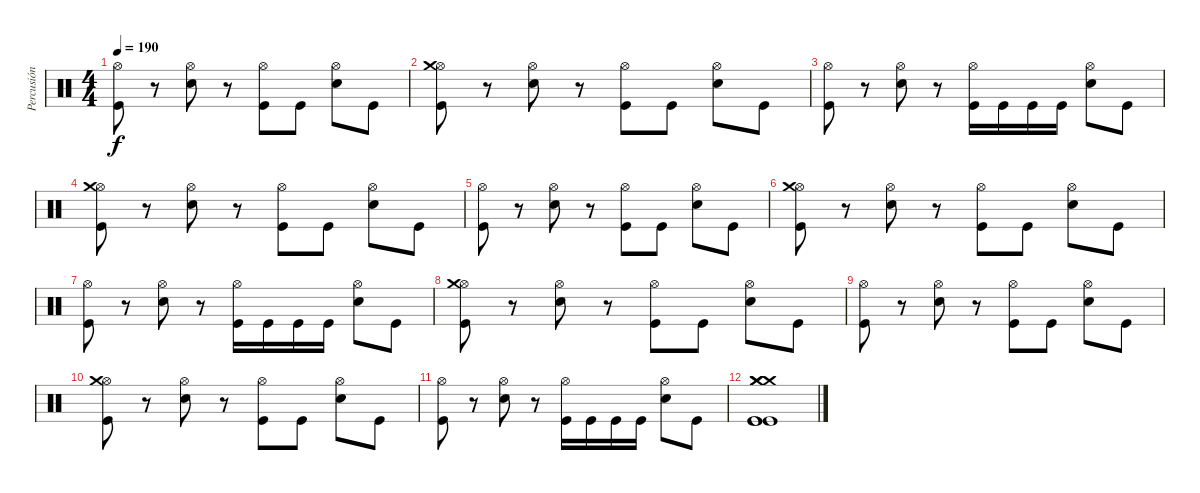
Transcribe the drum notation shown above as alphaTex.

\track ("Percusión" "Percusión") {instrument percussion}
\staff {score}
\articulation defaults
\ts (4 4)
\tempo 190
\clef neutral
\ks c
("Hi-Hat (open)" "Kick (hit)").8{dy f} r.8 ("Hi-Hat (open)" "Snare (hit) 2").8 r.8 ("Hi-Hat (open)" "Kick (hit)").8 "Kick (hit)".8 ("Hi-Hat (open)" "Snare (hit) 2").8 "Kick (hit)".8 |
("Hi-Hat (open)" "Crash medium (hit)" "Kick (hit)").8 r.8 ("Hi-Hat (open)" "Snare (hit) 2").8 r.8 ("Hi-Hat (open)" "Kick (hit)").8 "Kick (hit)".8 ("Hi-Hat (open)" "Snare (hit) 2").8 "Kick (hit)".8 |
("Hi-Hat (open)" "Kick (hit)").8 r.8 ("Hi-Hat (open)" "Snare (hit) 2").8 r.8 ("Hi-Hat (open)" "Kick (hit)").16 "Kick (hit)".16 "Kick (hit)".16 "Kick (hit)".16 ("Hi-Hat (open)" "Snare (hit) 2").8 "Kick (hit)".8 |
("Hi-Hat (open)" "Crash medium (hit)" "Kick (hit)").8 r.8 ("Hi-Hat (open)" "Snare (hit) 2").8 r.8 ("Hi-Hat (open)" "Kick (hit)").8 "Kick (hit)".8 ("Hi-Hat (open)" "Snare (hit) 2").8 "Kick (hit)".8 |
("Hi-Hat (open)" "Kick (hit)").8 r.8 ("Hi-Hat (open)" "Snare (hit) 2").8 r.8 ("Hi-Hat (open)" "Kick (hit)").8 "Kick (hit)".8 ("Hi-Hat (open)" "Snare (hit) 2").8 "Kick (hit)".8 |
("Hi-Hat (open)" "Crash medium (hit)" "Kick (hit)").8 r.8 ("Hi-Hat (open)" "Snare (hit) 2").8 r.8 ("Hi-Hat (open)" "Kick (hit)").8 "Kick (hit)".8 ("Hi-Hat (open)" "Snare (hit) 2").8 "Kick (hit)".8 |
("Hi-Hat (open)" "Kick (hit)").8 r.8 ("Hi-Hat (open)" "Snare (hit) 2").8 r.8 ("Hi-Hat (open)" "Kick (hit)").16 "Kick (hit)".16 "Kick (hit)".16 "Kick (hit)".16 ("Hi-Hat (open)" "Snare (hit) 2").8 "Kick (hit)".8 |
("Hi-Hat (open)" "Crash medium (hit)" "Kick (hit)").8 r.8 ("Hi-Hat (open)" "Snare (hit) 2").8 r.8 ("Hi-Hat (open)" "Kick (hit)").8 "Kick (hit)".8 ("Hi-Hat (open)" "Snare (hit) 2").8 "Kick (hit)".8 |
("Hi-Hat (open)" "Kick (hit)").8 r.8 ("Hi-Hat (open)" "Snare (hit) 2").8 r.8 ("Hi-Hat (open)" "Kick (hit)").8 "Kick (hit)".8 ("Hi-Hat (open)" "Snare (hit) 2").8 "Kick (hit)".8 |
("Hi-Hat (open)" "Crash medium (hit)" "Kick (hit)").8 r.8 ("Hi-Hat (open)" "Snare (hit) 2").8 r.8 ("Hi-Hat (open)" "Kick (hit)").8 "Kick (hit)".8 ("Hi-Hat (open)" "Snare (hit) 2").8 "Kick (hit)".8 |
("Hi-Hat (open)" "Kick (hit)").8 r.8 ("Hi-Hat (open)" "Snare (hit) 2").8 r.8 ("Hi-Hat (open)" "Kick (hit)").16 "Kick (hit)".16 "Kick (hit)".16 "Kick (hit)".16 ("Hi-Hat (open)" "Snare (hit) 2").8 "Kick (hit)".8 |
("Crash medium (hit)" "Crash medium (hit)" "Crash medium (hit)" "Kick (hit)" "Kick (hit)" "Kick (hit)").1
